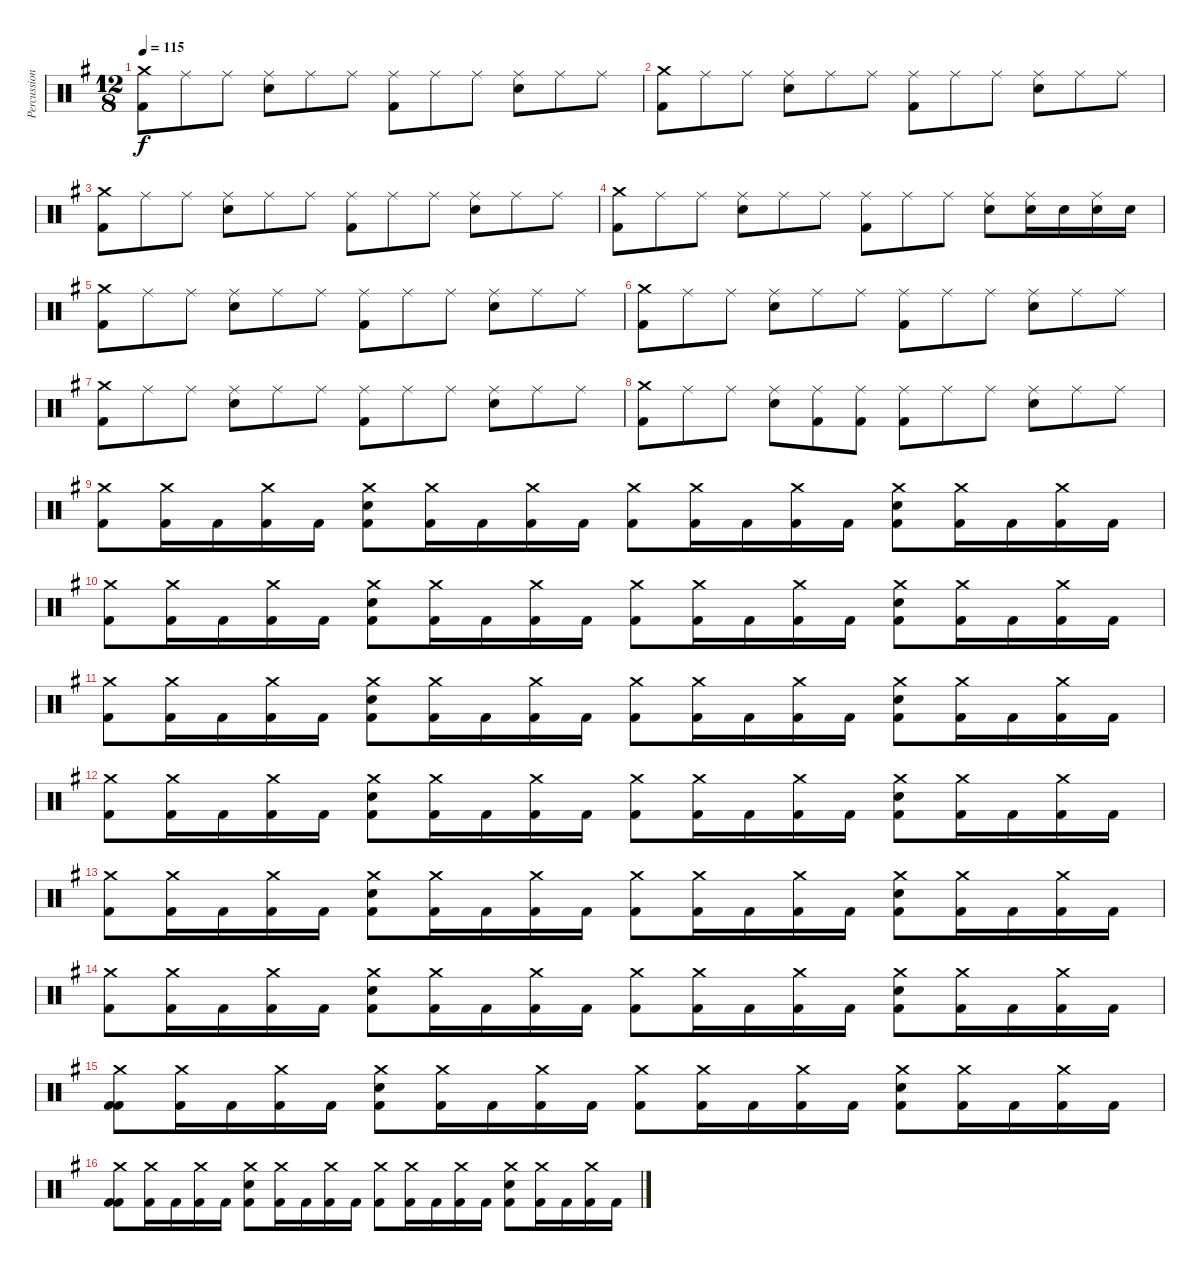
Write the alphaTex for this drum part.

\track ("Percussion" "Percussion") {instrument percussion}
\staff {score}
\articulation defaults
\ts (12 8)
\tempo 115
\clef neutral
\ks g
("Crash medium (hit)" "Kick (hit) 2").8{dy f} "Ride (middle)".8 "Ride (middle)".8 ("Ride (middle)" "Snare (hit) 2").8 "Ride (middle)".8 "Ride (middle)".8 ("Ride (middle)" "Kick (hit) 2").8 "Ride (middle)".8 "Ride (middle)".8 ("Ride (middle)" "Snare (hit) 2").8 "Ride (middle)".8 "Ride (middle)".8 |
("Crash medium (hit)" "Kick (hit) 2").8 "Ride (middle)".8 "Ride (middle)".8 ("Ride (middle)" "Snare (hit) 2").8 "Ride (middle)".8 "Ride (middle)".8 ("Ride (middle)" "Kick (hit) 2").8 "Ride (middle)".8 "Ride (middle)".8 ("Ride (middle)" "Snare (hit) 2").8 "Ride (middle)".8 "Ride (middle)".8 |
("Crash medium (hit)" "Kick (hit) 2").8 "Ride (middle)".8 "Ride (middle)".8 ("Ride (middle)" "Snare (hit) 2").8 "Ride (middle)".8 "Ride (middle)".8 ("Ride (middle)" "Kick (hit) 2").8 "Ride (middle)".8 "Ride (middle)".8 ("Ride (middle)" "Snare (hit) 2").8 "Ride (middle)".8 "Ride (middle)".8 |
("Crash medium (hit)" "Kick (hit) 2").8 "Ride (middle)".8 "Ride (middle)".8 ("Ride (middle)" "Snare (hit) 2").8 "Ride (middle)".8 "Ride (middle)".8 ("Ride (middle)" "Kick (hit) 2").8 "Ride (middle)".8 "Ride (middle)".8 ("Ride (middle)" "Snare (hit) 2").8 ("Ride (middle)" "Snare (hit) 2").16 "Snare (hit) 2".16 ("Ride (middle)" "Snare (hit) 2").16 "Snare (hit) 2".16 |
("Crash medium (hit)" "Kick (hit) 2").8 "Ride (middle)".8 "Ride (middle)".8 ("Ride (middle)" "Snare (hit) 2").8 "Ride (middle)".8 "Ride (middle)".8 ("Ride (middle)" "Kick (hit) 2").8 "Ride (middle)".8 "Ride (middle)".8 ("Ride (middle)" "Snare (hit) 2").8 "Ride (middle)".8 "Ride (middle)".8 |
("Crash medium (hit)" "Kick (hit) 2").8 "Ride (middle)".8 "Ride (middle)".8 ("Ride (middle)" "Snare (hit) 2").8 "Ride (middle)".8 "Ride (middle)".8 ("Ride (middle)" "Kick (hit) 2").8 "Ride (middle)".8 "Ride (middle)".8 ("Ride (middle)" "Snare (hit) 2").8 "Ride (middle)".8 "Ride (middle)".8 |
("Crash medium (hit)" "Kick (hit) 2").8 "Ride (middle)".8 "Ride (middle)".8 ("Ride (middle)" "Snare (hit) 2").8 "Ride (middle)".8 "Ride (middle)".8 ("Ride (middle)" "Kick (hit) 2").8 "Ride (middle)".8 "Ride (middle)".8 ("Ride (middle)" "Snare (hit) 2").8 "Ride (middle)".8 "Ride (middle)".8 |
("Crash medium (hit)" "Kick (hit) 2").8 "Ride (middle)".8 "Ride (middle)".8 ("Ride (middle)" "Snare (hit) 2").8 ("Ride (middle)" "Kick (hit) 2").8 ("Ride (middle)" "Kick (hit) 2").8 ("Ride (middle)" "Kick (hit) 2").8 "Ride (middle)".8 "Ride (middle)".8 ("Ride (middle)" "Snare (hit) 2").8 "Ride (middle)".8 "Ride (middle)".8 |
("Crash medium (hit)" "Kick (hit) 2").8 ("Crash medium (hit)" "Kick (hit) 2").16 "Kick (hit) 2".16 ("Crash medium (hit)" "Kick (hit) 2").16 "Kick (hit) 2".16 ("Crash medium (hit)" "Snare (hit) 2" "Kick (hit) 2").8 ("Crash medium (hit)" "Kick (hit) 2").16 "Kick (hit) 2".16 ("Crash medium (hit)" "Kick (hit) 2").16 "Kick (hit) 2".16 ("Crash medium (hit)" "Kick (hit) 2").8 ("Crash medium (hit)" "Kick (hit) 2").16 "Kick (hit) 2".16 ("Crash medium (hit)" "Kick (hit) 2").16 "Kick (hit) 2".16 ("Crash medium (hit)" "Snare (hit) 2" "Kick (hit) 2").8 ("Crash medium (hit)" "Kick (hit) 2").16 "Kick (hit) 2".16 ("Crash medium (hit)" "Kick (hit) 2").16 "Kick (hit) 2".16 |
("Crash medium (hit)" "Kick (hit) 2").8 ("Crash medium (hit)" "Kick (hit) 2").16 "Kick (hit) 2".16 ("Crash medium (hit)" "Kick (hit) 2").16 "Kick (hit) 2".16 ("Crash medium (hit)" "Snare (hit) 2" "Kick (hit) 2").8 ("Crash medium (hit)" "Kick (hit) 2").16 "Kick (hit) 2".16 ("Crash medium (hit)" "Kick (hit) 2").16 "Kick (hit) 2".16 ("Crash medium (hit)" "Kick (hit) 2").8 ("Crash medium (hit)" "Kick (hit) 2").16 "Kick (hit) 2".16 ("Crash medium (hit)" "Kick (hit) 2").16 "Kick (hit) 2".16 ("Crash medium (hit)" "Snare (hit) 2" "Kick (hit) 2").8 ("Crash medium (hit)" "Kick (hit) 2").16 "Kick (hit) 2".16 ("Crash medium (hit)" "Kick (hit) 2").16 "Kick (hit) 2".16 |
("Crash medium (hit)" "Kick (hit) 2").8 ("Crash medium (hit)" "Kick (hit) 2").16 "Kick (hit) 2".16 ("Crash medium (hit)" "Kick (hit) 2").16 "Kick (hit) 2".16 ("Crash medium (hit)" "Snare (hit) 2" "Kick (hit) 2").8 ("Crash medium (hit)" "Kick (hit) 2").16 "Kick (hit) 2".16 ("Crash medium (hit)" "Kick (hit) 2").16 "Kick (hit) 2".16 ("Crash medium (hit)" "Kick (hit) 2").8 ("Crash medium (hit)" "Kick (hit) 2").16 "Kick (hit) 2".16 ("Crash medium (hit)" "Kick (hit) 2").16 "Kick (hit) 2".16 ("Crash medium (hit)" "Snare (hit) 2" "Kick (hit) 2").8 ("Crash medium (hit)" "Kick (hit) 2").16 "Kick (hit) 2".16 ("Crash medium (hit)" "Kick (hit) 2").16 "Kick (hit) 2".16 |
("Crash medium (hit)" "Kick (hit) 2").8 ("Crash medium (hit)" "Kick (hit) 2").16 "Kick (hit) 2".16 ("Crash medium (hit)" "Kick (hit) 2").16 "Kick (hit) 2".16 ("Crash medium (hit)" "Snare (hit) 2" "Kick (hit) 2").8 ("Crash medium (hit)" "Kick (hit) 2").16 "Kick (hit) 2".16 ("Crash medium (hit)" "Kick (hit) 2").16 "Kick (hit) 2".16 ("Crash medium (hit)" "Kick (hit) 2").8 ("Crash medium (hit)" "Kick (hit) 2").16 "Kick (hit) 2".16 ("Crash medium (hit)" "Kick (hit) 2").16 "Kick (hit) 2".16 ("Crash medium (hit)" "Snare (hit) 2" "Kick (hit) 2").8 ("Crash medium (hit)" "Kick (hit) 2").16 "Kick (hit) 2".16 ("Crash medium (hit)" "Kick (hit) 2").16 "Kick (hit) 2".16 |
("Crash medium (hit)" "Kick (hit) 2").8 ("Crash medium (hit)" "Kick (hit) 2").16 "Kick (hit) 2".16 ("Crash medium (hit)" "Kick (hit) 2").16 "Kick (hit) 2".16 ("Crash medium (hit)" "Snare (hit) 2" "Kick (hit) 2").8 ("Crash medium (hit)" "Kick (hit) 2").16 "Kick (hit) 2".16 ("Crash medium (hit)" "Kick (hit) 2").16 "Kick (hit) 2".16 ("Crash medium (hit)" "Kick (hit) 2").8 ("Crash medium (hit)" "Kick (hit) 2").16 "Kick (hit) 2".16 ("Crash medium (hit)" "Kick (hit) 2").16 "Kick (hit) 2".16 ("Crash medium (hit)" "Snare (hit) 2" "Kick (hit) 2").8 ("Crash medium (hit)" "Kick (hit) 2").16 "Kick (hit) 2".16 ("Crash medium (hit)" "Kick (hit) 2").16 "Kick (hit) 2".16 |
("Crash medium (hit)" "Kick (hit) 2").8 ("Crash medium (hit)" "Kick (hit) 2").16 "Kick (hit) 2".16 ("Crash medium (hit)" "Kick (hit) 2").16 "Kick (hit) 2".16 ("Crash medium (hit)" "Snare (hit) 2" "Kick (hit) 2").8 ("Crash medium (hit)" "Kick (hit) 2").16 "Kick (hit) 2".16 ("Crash medium (hit)" "Kick (hit) 2").16 "Kick (hit) 2".16 ("Crash medium (hit)" "Kick (hit) 2").8 ("Crash medium (hit)" "Kick (hit) 2").16 "Kick (hit) 2".16 ("Crash medium (hit)" "Kick (hit) 2").16 "Kick (hit) 2".16 ("Crash medium (hit)" "Snare (hit) 2" "Kick (hit) 2").8 ("Crash medium (hit)" "Kick (hit) 2").16 "Kick (hit) 2".16 ("Crash medium (hit)" "Kick (hit) 2").16 "Kick (hit) 2".16 |
("Crash medium (hit)" "Kick (hit) 2" "Kick (hit) 2").8 ("Crash medium (hit)" "Kick (hit) 2").16 "Kick (hit) 2".16 ("Crash medium (hit)" "Kick (hit) 2").16 "Kick (hit) 2".16 ("Crash medium (hit)" "Snare (hit) 2" "Kick (hit) 2").8 ("Crash medium (hit)" "Kick (hit) 2").16 "Kick (hit) 2".16 ("Crash medium (hit)" "Kick (hit) 2").16 "Kick (hit) 2".16 ("Crash medium (hit)" "Kick (hit) 2").8 ("Crash medium (hit)" "Kick (hit) 2").16 "Kick (hit) 2".16 ("Crash medium (hit)" "Kick (hit) 2").16 "Kick (hit) 2".16 ("Crash medium (hit)" "Snare (hit) 2" "Kick (hit) 2").8 ("Crash medium (hit)" "Kick (hit) 2").16 "Kick (hit) 2".16 ("Crash medium (hit)" "Kick (hit) 2").16 "Kick (hit) 2".16 |
("Crash medium (hit)" "Kick (hit) 2" "Kick (hit) 2").8 ("Crash medium (hit)" "Kick (hit) 2").16 "Kick (hit) 2".16 ("Crash medium (hit)" "Kick (hit) 2").16 "Kick (hit) 2".16 ("Crash medium (hit)" "Snare (hit) 2" "Kick (hit) 2").8 ("Crash medium (hit)" "Kick (hit) 2").16 "Kick (hit) 2".16 ("Crash medium (hit)" "Kick (hit) 2").16 "Kick (hit) 2".16 ("Crash medium (hit)" "Kick (hit) 2").8 ("Crash medium (hit)" "Kick (hit) 2").16 "Kick (hit) 2".16 ("Crash medium (hit)" "Kick (hit) 2").16 "Kick (hit) 2".16 ("Crash medium (hit)" "Snare (hit) 2" "Kick (hit) 2").8 ("Crash medium (hit)" "Kick (hit) 2").16 "Kick (hit) 2".16 ("Crash medium (hit)" "Kick (hit) 2").16 "Kick (hit) 2".16
